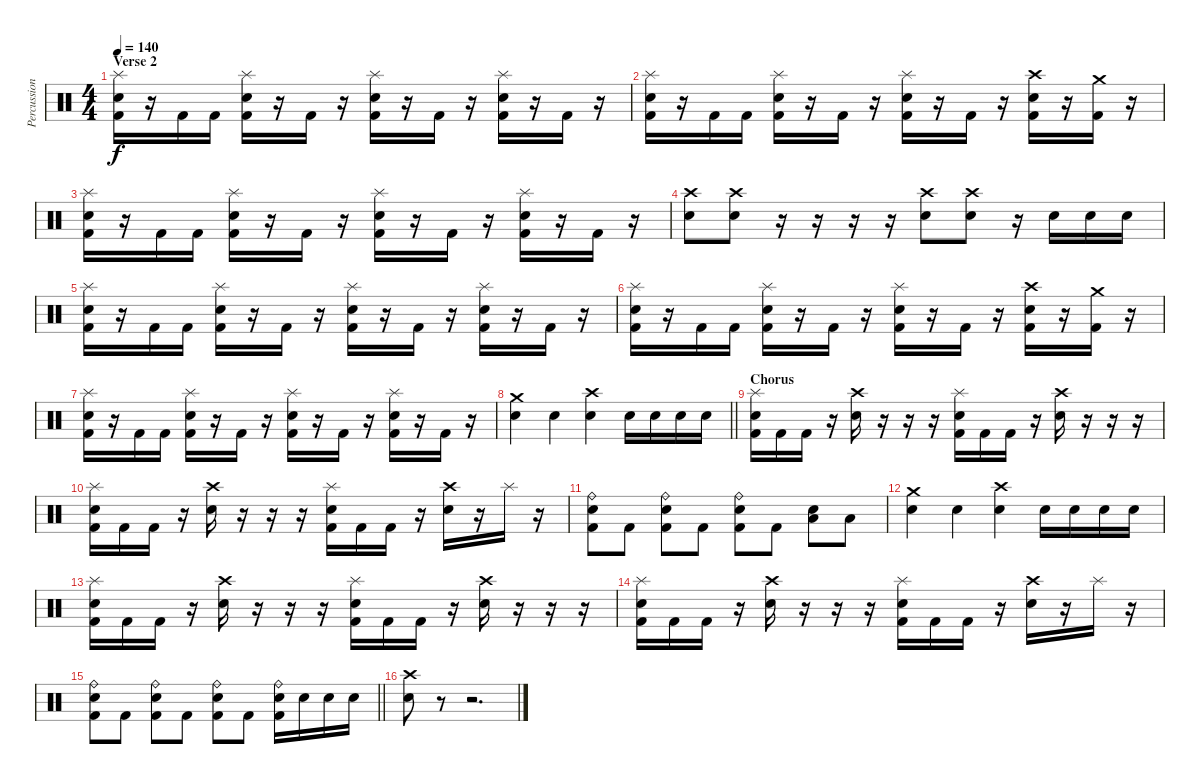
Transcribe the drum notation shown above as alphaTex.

\track ("Percussion" "Percussion") {instrument percussion}
\staff {score}
\articulation defaults
\ts (4 4)
\section ("" "Verse 2")
\tempo 140
\clef neutral
\ks c
("Splash (hit)" "Snare (hit) 2" "Kick (hit) 2").16{dy f} r.16 "Kick (hit) 2".16 "Kick (hit) 2".16 ("Splash (hit)" "Snare (hit) 2" "Kick (hit) 2").16 r.16 "Kick (hit) 2".16 r.16 ("Splash (hit)" "Snare (hit) 2" "Kick (hit) 2").16 r.16 "Kick (hit) 2".16 r.16 ("Splash (hit)" "Snare (hit) 2" "Kick (hit) 2").16 r.16 "Kick (hit) 2".16 r.16 |
("Splash (hit)" "Snare (hit) 2" "Kick (hit) 2").16 r.16 "Kick (hit) 2".16 "Kick (hit) 2".16 ("Splash (hit)" "Snare (hit) 2" "Kick (hit) 2").16 r.16 "Kick (hit) 2".16 r.16 ("Splash (hit)" "Snare (hit) 2" "Kick (hit) 2").16 r.16 "Kick (hit) 2".16 r.16 ("Crash high (hit)" "Snare (hit) 2" "Kick (hit) 2").16 r.16 ("Crash medium (hit)" "Kick (hit) 2").16 r.16 |
("Splash (hit)" "Snare (hit) 2" "Kick (hit) 2").16 r.16 "Kick (hit) 2".16 "Kick (hit) 2".16 ("Splash (hit)" "Snare (hit) 2" "Kick (hit) 2").16 r.16 "Kick (hit) 2".16 r.16 ("Splash (hit)" "Snare (hit) 2" "Kick (hit) 2").16 r.16 "Kick (hit) 2".16 r.16 ("Splash (hit)" "Snare (hit) 2" "Kick (hit) 2").16 r.16 "Kick (hit) 2".16 r.16 |
("Crash high (hit)" "Snare (hit) 2").8 ("Crash high (hit)" "Snare (hit) 2").8 r.16 r.16 r.16 r.16 ("Crash high (hit)" "Snare (hit) 2").8 ("Crash high (hit)" "Snare (hit) 2").8 r.16 "Snare (hit) 2".16 "Snare (hit) 2".16 "Snare (hit) 2".16 |
("Splash (hit)" "Snare (hit) 2" "Kick (hit) 2").16 r.16 "Kick (hit) 2".16 "Kick (hit) 2".16 ("Splash (hit)" "Snare (hit) 2" "Kick (hit) 2").16 r.16 "Kick (hit) 2".16 r.16 ("Splash (hit)" "Snare (hit) 2" "Kick (hit) 2").16 r.16 "Kick (hit) 2".16 r.16 ("Splash (hit)" "Snare (hit) 2" "Kick (hit) 2").16 r.16 "Kick (hit) 2".16 r.16 |
("Splash (hit)" "Snare (hit) 2" "Kick (hit) 2").16 r.16 "Kick (hit) 2".16 "Kick (hit) 2".16 ("Splash (hit)" "Snare (hit) 2" "Kick (hit) 2").16 r.16 "Kick (hit) 2".16 r.16 ("Splash (hit)" "Snare (hit) 2" "Kick (hit) 2").16 r.16 "Kick (hit) 2".16 r.16 ("Crash high (hit)" "Snare (hit) 2" "Kick (hit) 2").16 r.16 ("Crash medium (hit)" "Kick (hit) 2").16 r.16 |
("Splash (hit)" "Snare (hit) 2" "Kick (hit) 2").16 r.16 "Kick (hit) 2".16 "Kick (hit) 2".16 ("Splash (hit)" "Snare (hit) 2" "Kick (hit) 2").16 r.16 "Kick (hit) 2".16 r.16 ("Splash (hit)" "Snare (hit) 2" "Kick (hit) 2").16 r.16 "Kick (hit) 2".16 r.16 ("Splash (hit)" "Snare (hit) 2" "Kick (hit) 2").16 r.16 "Kick (hit) 2".16 r.16 |
\barLineRight lightlight
("Crash medium (hit)" "Snare (hit) 2").4 "Snare (hit) 2".4 ("Crash high (hit)" "Snare (hit) 2").4 "Snare (hit) 2".16 "Snare (hit) 2".16 "Snare (hit) 2".16 "Snare (hit) 2".16 |
\section ("" "Chorus")
("Splash (hit)" "Snare (hit) 2" "Kick (hit) 2").16 "Kick (hit) 2".16 "Kick (hit) 2".16 r.16 ("Crash high (hit)" "Snare (hit) 2").16 r.16 r.16 r.16 ("Splash (hit)" "Snare (hit) 2" "Kick (hit) 2").16 "Kick (hit) 2".16 "Kick (hit) 2".16 r.16 ("Crash high (hit)" "Snare (hit) 2").16 r.16 r.16 r.16 |
("Splash (hit)" "Snare (hit) 2" "Kick (hit) 2").16 "Kick (hit) 2".16 "Kick (hit) 2".16 r.16 ("Crash high (hit)" "Snare (hit) 2").16 r.16 r.16 r.16 ("Splash (hit)" "Snare (hit) 2" "Kick (hit) 2").16 "Kick (hit) 2".16 "Kick (hit) 2".16 r.16 ("Crash high (hit)" "Snare (hit) 2").16 r.16 "Splash (hit)".16 r.16 |
("Ride (bell)" "Snare (hit) 2" "Kick (hit) 2").8 "Kick (hit) 2".8 ("Ride (bell)" "Snare (hit) 2" "Kick (hit) 2").8 "Kick (hit) 2".8 ("Ride (bell)" "Snare (hit) 2" "Kick (hit) 2").8 "Kick (hit) 2".8 ("Low Tom (hit)" "Snare (hit) 2").8 "Low Floor Tom (hit)".8 |
("Crash medium (hit)" "Snare (hit) 2").4 "Snare (hit) 2".4 ("Crash high (hit)" "Snare (hit) 2").4 "Snare (hit) 2".16 "Snare (hit) 2".16 "Snare (hit) 2".16 "Snare (hit) 2".16 |
("Splash (hit)" "Snare (hit) 2" "Kick (hit) 2").16 "Kick (hit) 2".16 "Kick (hit) 2".16 r.16 ("Crash high (hit)" "Snare (hit) 2").16 r.16 r.16 r.16 ("Splash (hit)" "Snare (hit) 2" "Kick (hit) 2").16 "Kick (hit) 2".16 "Kick (hit) 2".16 r.16 ("Crash high (hit)" "Snare (hit) 2").16 r.16 r.16 r.16 |
("Splash (hit)" "Snare (hit) 2" "Kick (hit) 2").16 "Kick (hit) 2".16 "Kick (hit) 2".16 r.16 ("Crash high (hit)" "Snare (hit) 2").16 r.16 r.16 r.16 ("Splash (hit)" "Snare (hit) 2" "Kick (hit) 2").16 "Kick (hit) 2".16 "Kick (hit) 2".16 r.16 ("Crash high (hit)" "Snare (hit) 2").16 r.16 "Splash (hit)".16 r.16 |
\barLineRight lightlight
("Ride (bell)" "Snare (hit) 2" "Kick (hit) 2").8 "Kick (hit) 2".8 ("Ride (bell)" "Snare (hit) 2" "Kick (hit) 2").8 "Kick (hit) 2".8 ("Ride (bell)" "Snare (hit) 2" "Kick (hit) 2").8 "Kick (hit) 2".8 ("Ride (bell)" "Snare (hit) 2" "Kick (hit) 2").16 "Snare (hit) 2".16 "Snare (hit) 2".16 "Snare (hit) 2".16 |
("Crash high (hit)" "Snare (hit) 2").8 r.8 r.2{d}
